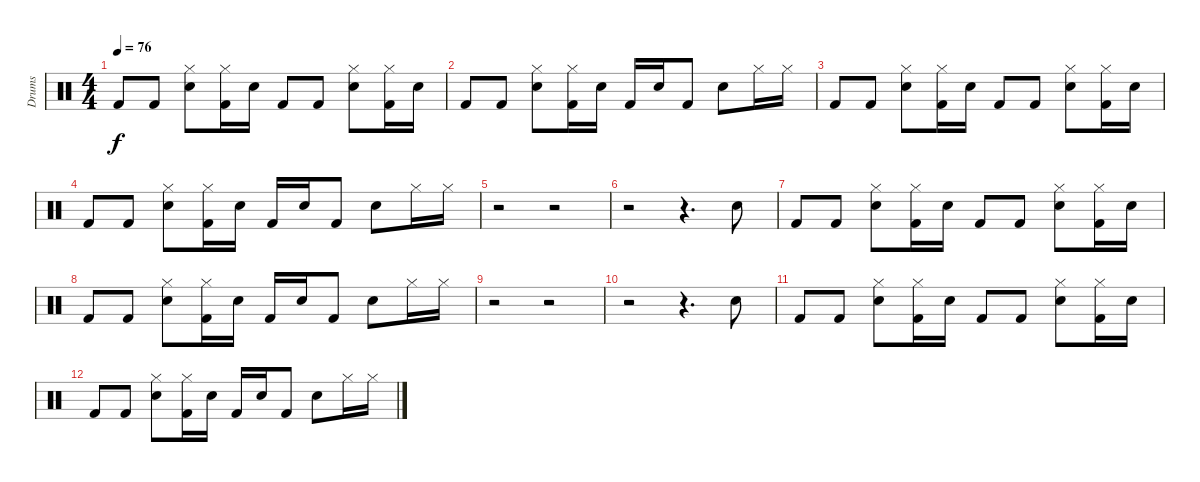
\track ("Drums" "Drums") {instrument percussion}
\staff {score}
\articulation defaults
\ts (4 4)
\tempo 76
\clef neutral
\ks c "Kick (hit) 2".8{dy f} "Kick (hit) 2".8
("Electric Snare (hit)" "Hi-Hat (closed)").8 ("Kick (hit) 2" "Hi-Hat (closed)").16 "Electric Snare (hit)".16 "Kick (hit) 2".8 "Kick (hit) 2".8 ("Electric Snare (hit)" "Hi-Hat (closed)").8 ("Kick (hit) 2" "Hi-Hat (closed)").16 "Electric Snare (hit)".16 |
"Kick (hit) 2".8 "Kick (hit) 2".8 ("Electric Snare (hit)" "Hi-Hat (closed)").8 ("Kick (hit) 2" "Hi-Hat (closed)").16 "Electric Snare (hit)".16 "Kick (hit) 2".16 "Electric Snare (hit)".16 "Kick (hit) 2".8 "Electric Snare (hit)".8 "Hi-Hat (closed)".16 "Hi-Hat (closed)".16 |
"Kick (hit) 2".8 "Kick (hit) 2".8 ("Electric Snare (hit)" "Hi-Hat (closed)").8 ("Kick (hit) 2" "Hi-Hat (closed)").16 "Electric Snare (hit)".16 "Kick (hit) 2".8 "Kick (hit) 2".8 ("Electric Snare (hit)" "Hi-Hat (closed)").8 ("Kick (hit) 2" "Hi-Hat (closed)").16 "Electric Snare (hit)".16 |
"Kick (hit) 2".8 "Kick (hit) 2".8 ("Electric Snare (hit)" "Hi-Hat (closed)").8 ("Kick (hit) 2" "Hi-Hat (closed)").16 "Electric Snare (hit)".16 "Kick (hit) 2".16 "Electric Snare (hit)".16 "Kick (hit) 2".8 "Electric Snare (hit)".8 "Hi-Hat (closed)".16 "Hi-Hat (closed)".16 |
r.2 r.2 |
r.2 r.4{d} "Electric Snare (hit)".8 |
"Kick (hit) 2".8 "Kick (hit) 2".8 ("Electric Snare (hit)" "Hi-Hat (closed)").8 ("Kick (hit) 2" "Hi-Hat (closed)").16 "Electric Snare (hit)".16 "Kick (hit) 2".8 "Kick (hit) 2".8 ("Electric Snare (hit)" "Hi-Hat (closed)").8 ("Kick (hit) 2" "Hi-Hat (closed)").16 "Electric Snare (hit)".16 |
"Kick (hit) 2".8 "Kick (hit) 2".8 ("Electric Snare (hit)" "Hi-Hat (closed)").8 ("Kick (hit) 2" "Hi-Hat (closed)").16 "Electric Snare (hit)".16 "Kick (hit) 2".16 "Electric Snare (hit)".16 "Kick (hit) 2".8 "Electric Snare (hit)".8 "Hi-Hat (closed)".16 "Hi-Hat (closed)".16 |
r.2 r.2 |
r.2 r.4{d} "Electric Snare (hit)".8 |
"Kick (hit) 2".8 "Kick (hit) 2".8 ("Electric Snare (hit)" "Hi-Hat (closed)").8 ("Kick (hit) 2" "Hi-Hat (closed)").16 "Electric Snare (hit)".16 "Kick (hit) 2".8 "Kick (hit) 2".8 ("Electric Snare (hit)" "Hi-Hat (closed)").8 ("Kick (hit) 2" "Hi-Hat (closed)").16 "Electric Snare (hit)".16 |
"Kick (hit) 2".8 "Kick (hit) 2".8 ("Electric Snare (hit)" "Hi-Hat (closed)").8 ("Kick (hit) 2" "Hi-Hat (closed)").16 "Electric Snare (hit)".16 "Kick (hit) 2".16 "Electric Snare (hit)".16 "Kick (hit) 2".8 "Electric Snare (hit)".8 "Hi-Hat (closed)".16 "Hi-Hat (closed)".16
